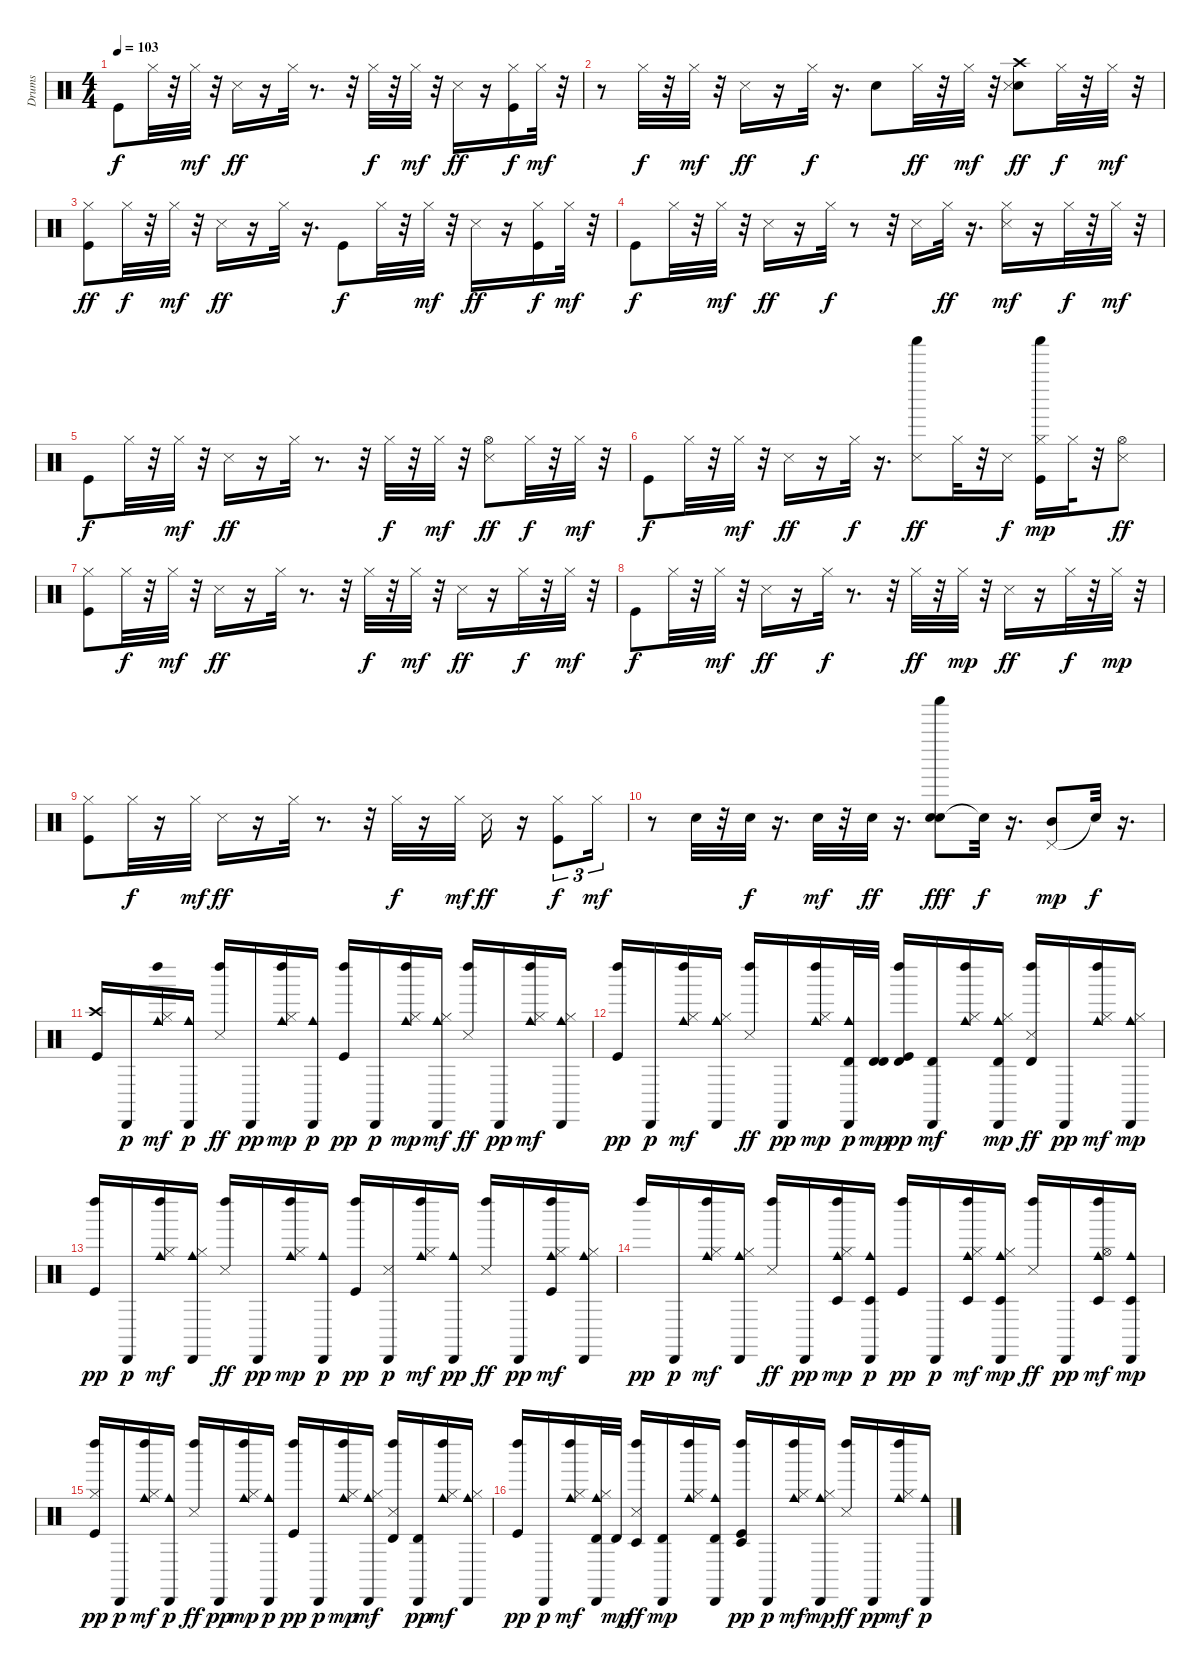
\track ("Drums" "Drums") {instrument percussion}
\staff {score}
\articulation defaults
\ts (4 4)
\tempo 103
\clef neutral
\ks c "Kick (hit)".8{dy f} "Hi-Hat (closed)".32
r.32 "Hi-Hat (closed)".32{dy mf} r.32 "Snare (side stick) 3".16{dy ff} r.16 "Hi-Hat (closed)".32 r.8{d} r.32 "Hi-Hat (closed)".32{dy f} r.32 "Hi-Hat (closed)".32{dy mf} r.32 "Snare (side stick) 3".16{dy ff} r.16 ("Kick (hit)" "Hi-Hat (closed)").16{dy f} "Hi-Hat (closed)".32{dy mf} r.32 |
r.8 "Hi-Hat (closed)".32{dy f} r.32 "Hi-Hat (closed)".32{dy mf} r.32 "Snare (side stick) 3".16{dy ff} r.16 "Hi-Hat (closed)".32{dy f} r.16{d} "Snare (hit) 2".8 "Hi-Hat (closed)".32{dy ff} r.32 "Hi-Hat (closed)".32{dy mf} r.32 ("Crash high (hit)" "Electric Snare (hit)" "Snare (side stick) 3").8{dy ff} "Hi-Hat (closed)".32{dy f} r.32 "Hi-Hat (closed)".32{dy mf} r.32 |
("Kick (hit)" "Hi-Hat (closed)").8{dy ff} "Hi-Hat (closed)".32{dy f} r.32 "Hi-Hat (closed)".32{dy mf} r.32 "Snare (side stick) 3".16{dy ff} r.16 "Hi-Hat (closed)".32 r.16{d} "Kick (hit)".8{dy f} "Hi-Hat (closed)".32 r.32 "Hi-Hat (closed)".32{dy mf} r.32 "Snare (side stick) 3".16{dy ff} r.16 ("Kick (hit)" "Hi-Hat (closed)").16{dy f} "Hi-Hat (closed)".32{dy mf} r.32 |
"Kick (hit)".8{dy f} "Hi-Hat (closed)".32 r.32 "Hi-Hat (closed)".32{dy mf} r.32 "Snare (side stick) 3".16{dy ff} r.16 "Hi-Hat (closed)".32{dy f} r.8 r.32 "Snare (side stick) 3".16 "Hi-Hat (closed)".32{dy ff} r.16{d} ("Snare (side stick) 3" "Hi-Hat (closed)").16{dy mf} r.16 "Hi-Hat (closed)".32{dy f} r.32 "Hi-Hat (closed)".32{dy mf} r.32 |
"Kick (hit)".8{dy f} "Hi-Hat (closed)".32 r.32 "Hi-Hat (closed)".32{dy mf} r.32 "Snare (side stick) 3".16{dy ff} r.16 "Hi-Hat (closed)".32 r.8{d} r.32 "Hi-Hat (closed)".32{dy f} r.32 "Hi-Hat (closed)".32{dy mf} r.32 ("Hi-Hat (open)" "Snare (side stick) 3").8{dy ff} "Hi-Hat (closed)".32{dy f} r.32 "Hi-Hat (closed)".32{dy mf} r.32 |
"Kick (hit)".8{dy f} "Hi-Hat (closed)".32 r.32 "Hi-Hat (closed)".32{dy mf} r.32 "Snare (side stick) 3".16{dy ff} r.16 "Hi-Hat (closed)".32{dy f} r.16{d} ("Shaker (hit)" "Snare (side stick) 3").8{dy ff} "Hi-Hat (closed)".32 r.32 "Snare (side stick) 3".16{dy f} ("Kick (hit)" "Hi-Hat (closed)" "Shaker (hit)").16{dy mp} "Hi-Hat (closed)".32 r.32 ("Hi-Hat (open)" "Snare (side stick) 3").8{dy ff} |
("Kick (hit)" "Hi-Hat (closed)").8 "Hi-Hat (closed)".32{dy f} r.32 "Hi-Hat (closed)".32{dy mf} r.32 "Snare (side stick) 3".16{dy ff} r.16 "Hi-Hat (closed)".32 r.8{d} r.32 "Hi-Hat (closed)".32{dy f} r.32 "Hi-Hat (closed)".32{dy mf} r.32 "Snare (side stick) 3".16{dy ff} r.16 "Hi-Hat (closed)".32{dy f} r.32 "Hi-Hat (closed)".32{dy mf} r.32 |
"Kick (hit)".8{dy f} "Hi-Hat (closed)".32 r.32 "Hi-Hat (closed)".32{dy mf} r.32 "Snare (side stick) 3".16{dy ff} r.16 "Hi-Hat (closed)".32{dy f} r.8{d} r.32 "Hi-Hat (closed)".32{dy ff} r.32 "Hi-Hat (closed)".32{dy mp} r.32 "Snare (side stick) 3".16{dy ff} r.16 "Hi-Hat (closed)".32{dy f} r.32 "Hi-Hat (closed)".32{dy mp} r.32 |
("Kick (hit)" "Hi-Hat (closed)").8 "Hi-Hat (closed)".32{dy f} r.16 "Hi-Hat (closed)".32{dy mf} "Snare (side stick) 3".16{dy ff} r.16 "Hi-Hat (closed)".32 r.8{d} r.32 "Hi-Hat (closed)".32{dy f} r.16 "Hi-Hat (closed)".32{dy mf} "Snare (side stick) 3".16{dy ff} r.16 ("Kick (hit)" "Hi-Hat (closed)").8{tu (3 2) dy f} "Hi-Hat (closed)".16{tu (3 2) dy mf} |
r.8 "Electric Snare (hit)".32 r.32 "Electric Snare (hit)".32{dy f} r.16{d} "Electric Snare (hit)".32{dy mf} r.32 "Electric Snare (hit)".32{dy ff} r.16{d} ("Electric Snare (hit)" "Shaker (hit)" "Electric Snare (hit)").8{dy fff} "Snare (hit)"{t}.32{dy f} r.16{d} ("Pedal Hi-Hat (hit)" "Mid Tom (hit)").8{dy mp} "Snare (hit)"{t}.32{dy f} r.16{d} |
("Crash high (hit)" "Kick (hit)").16 "Cabasa (hit)".16{dy p} ("Left Maraca (hit)" "Hi-Hat (closed)" "Cowbell medium (hit)").16{dy mf} ("Cowbell medium (hit)" "Cabasa (hit)").16{dy p} ("Left Maraca (hit)" "Snare (side stick) 3").16{dy ff} "Cabasa (hit)".16{dy pp} ("Left Maraca (hit)" "Hi-Hat (closed)" "Cowbell medium (hit)").16{dy mp} ("Cowbell medium (hit)" "Cabasa (hit)").16{dy p} ("Left Maraca (hit)" "Kick (hit)").16{dy pp} "Cabasa (hit)".16{dy p} ("Left Maraca (hit)" "Hi-Hat (closed)" "Cowbell medium (hit)").16{dy mp} ("Cowbell medium (hit)" "Cabasa (hit)" "Hi-Hat (closed)").16{dy mf} ("Left Maraca (hit)" "Snare (side stick) 3").16{dy ff} "Cabasa (hit)".16{dy pp} ("Left Maraca (hit)" "Hi-Hat (closed)" "Cowbell medium (hit)").16{dy mf} ("Cowbell medium (hit)" "Cabasa (hit)" "Hi-Hat (closed)").16 |
("Left Maraca (hit)" "Kick (hit)").16{dy pp} "Cabasa (hit)".16{dy p} ("Left Maraca (hit)" "Hi-Hat (closed)" "Cowbell medium (hit)").16{dy mf} ("Cowbell medium (hit)" "Cabasa (hit)" "Hi-Hat (closed)").16 ("Left Maraca (hit)" "Snare (side stick) 3").16{dy ff} "Cabasa (hit)".16{dy pp} ("Left Maraca (hit)" "Hi-Hat (closed)" "Cowbell medium (hit)").16{dy mp} ("Cowbell medium (hit)" "Cabasa (hit)" "Timbale high (hit)").32{dy p} ("Timbale high (hit)" "Timbale high (hit)").32{dy mp} ("Left Maraca (hit)" "Kick (hit)" "Timbale high (hit)").16{dy pp} ("Cabasa (hit)" "Timbale high (hit)").16{dy mf} ("Left Maraca (hit)" "Hi-Hat (closed)" "Cowbell medium (hit)").16 ("Cowbell medium (hit)" "Cabasa (hit)" "Timbale high (hit)" "Hi-Hat (closed)").16{dy mp} ("Left Maraca (hit)" "Snare (side stick) 3" "Timbale high (hit)").16{dy ff} "Cabasa (hit)".16{dy pp} ("Left Maraca (hit)" "Hi-Hat (closed)" "Cowbell medium (hit)").16{dy mf} ("Cowbell medium (hit)" "Cabasa (hit)" "Hi-Hat (closed)").16{dy mp} |
("Left Maraca (hit)" "Kick (hit)").16{dy pp} "Cabasa (hit)".16{dy p} ("Left Maraca (hit)" "Hi-Hat (closed)" "Cowbell medium (hit)").16{dy mf} ("Cowbell medium (hit)" "Cabasa (hit)" "Hi-Hat (closed)").16 ("Left Maraca (hit)" "Snare (side stick) 3").16{dy ff} "Cabasa (hit)".16{dy pp} ("Left Maraca (hit)" "Hi-Hat (closed)" "Cowbell medium (hit)").16{dy mp} ("Cowbell medium (hit)" "Cabasa (hit)").16{dy p} ("Left Maraca (hit)" "Kick (hit)").16{dy pp} ("Cabasa (hit)" "Snare (side stick) 3").16{dy p} ("Left Maraca (hit)" "Hi-Hat (closed)" "Cowbell medium (hit)").16{dy mf} ("Cowbell medium (hit)" "Cabasa (hit)").16{dy pp} ("Left Maraca (hit)" "Snare (side stick) 3").16{dy ff} "Cabasa (hit)".16{dy pp} ("Left Maraca (hit)" "Kick (hit)" "Hi-Hat (closed)" "Cowbell medium (hit)").16{dy mf} ("Cowbell medium (hit)" "Cabasa (hit)" "Hi-Hat (closed)").16 |
"Left Maraca (hit)".16{dy pp} "Cabasa (hit)".16{dy p} ("Left Maraca (hit)" "Hi-Hat (closed)" "Cowbell medium (hit)").16{dy mf} ("Cowbell medium (hit)" "Cabasa (hit)" "Hi-Hat (closed)").16 ("Left Maraca (hit)" "Snare (side stick) 3").16{dy ff} "Cabasa (hit)".16{dy pp} ("Left Maraca (hit)" "Hi-Hat (closed)" "Timbale low (hit)" "Cowbell medium (hit)").16{dy mp} ("Timbale low (hit)" "Cowbell medium (hit)" "Cabasa (hit)").16{dy p} ("Left Maraca (hit)" "Kick (hit)").16{dy pp} "Cabasa (hit)".16{dy p} ("Left Maraca (hit)" "Hi-Hat (closed)" "Cowbell medium (hit)" "Timbale low (hit)").16{dy mf} ("Timbale low (hit)" "Cowbell medium (hit)" "Cabasa (hit)" "Hi-Hat (closed)").16{dy mp} ("Left Maraca (hit)" "Snare (side stick) 3").16{dy ff} "Cabasa (hit)".16{dy pp} ("Left Maraca (hit)" "Hi-Hat (open)" "Cowbell medium (hit)" "Timbale low (hit)").16{dy mf} ("Cowbell medium (hit)" "Cabasa (hit)" "Timbale low (hit)").16{dy mp} |
("Left Maraca (hit)" "Hi-Hat (closed)" "Kick (hit)").16{dy pp} "Cabasa (hit)".16{dy p} ("Left Maraca (hit)" "Hi-Hat (closed)" "Cowbell medium (hit)").16{dy mf} ("Cowbell medium (hit)" "Cabasa (hit)").16{dy p} ("Left Maraca (hit)" "Snare (side stick) 3").16{dy ff} "Cabasa (hit)".16{dy pp} ("Left Maraca (hit)" "Hi-Hat (closed)" "Cowbell medium (hit)").16{dy mp} ("Cowbell medium (hit)" "Cabasa (hit)").16{dy p} ("Left Maraca (hit)" "Kick (hit)").16{dy pp} "Cabasa (hit)".16{dy p} ("Left Maraca (hit)" "Hi-Hat (closed)" "Cowbell medium (hit)").16{dy mp} ("Cowbell medium (hit)" "Cabasa (hit)" "Hi-Hat (closed)").16{dy mf} ("Left Maraca (hit)" "Snare (side stick) 3" "Timbale high (hit)").16 ("Timbale high (hit)" "Cabasa (hit)").16{dy pp} ("Left Maraca (hit)" "Hi-Hat (closed)" "Cowbell medium (hit)").16{dy mf} ("Cowbell medium (hit)" "Cabasa (hit)" "Hi-Hat (closed)").16 |
("Left Maraca (hit)" "Kick (hit)").16{dy pp} "Cabasa (hit)".16{dy p} ("Left Maraca (hit)" "Hi-Hat (closed)" "Cowbell medium (hit)").16{dy mf} ("Cowbell medium (hit)" "Cabasa (hit)" "Timbale high (hit)" "Hi-Hat (closed)").32 "Timbale high (hit)".32{dy mp} ("Left Maraca (hit)" "Snare (side stick) 3" "Timbale low (hit)").16{dy ff} ("Cabasa (hit)" "Timbale high (hit)").16{dy mp} ("Left Maraca (hit)" "Hi-Hat (closed)" "Cowbell medium (hit)").16 ("Cowbell medium (hit)" "Cabasa (hit)" "Timbale high (hit)").16 ("Left Maraca (hit)" "Kick (hit)" "Timbale low (hit)").16{dy pp} "Cabasa (hit)".16{dy p} ("Left Maraca (hit)" "Hi-Hat (closed)" "Cowbell medium (hit)").16{dy mf} ("Cowbell medium (hit)" "Cabasa (hit)" "Hi-Hat (closed)").16{dy mp} ("Left Maraca (hit)" "Snare (side stick) 3").16{dy ff} "Cabasa (hit)".16{dy pp} ("Left Maraca (hit)" "Hi-Hat (closed)" "Cowbell medium (hit)").16{dy mf} ("Cowbell medium (hit)" "Cabasa (hit)").16{dy p}
